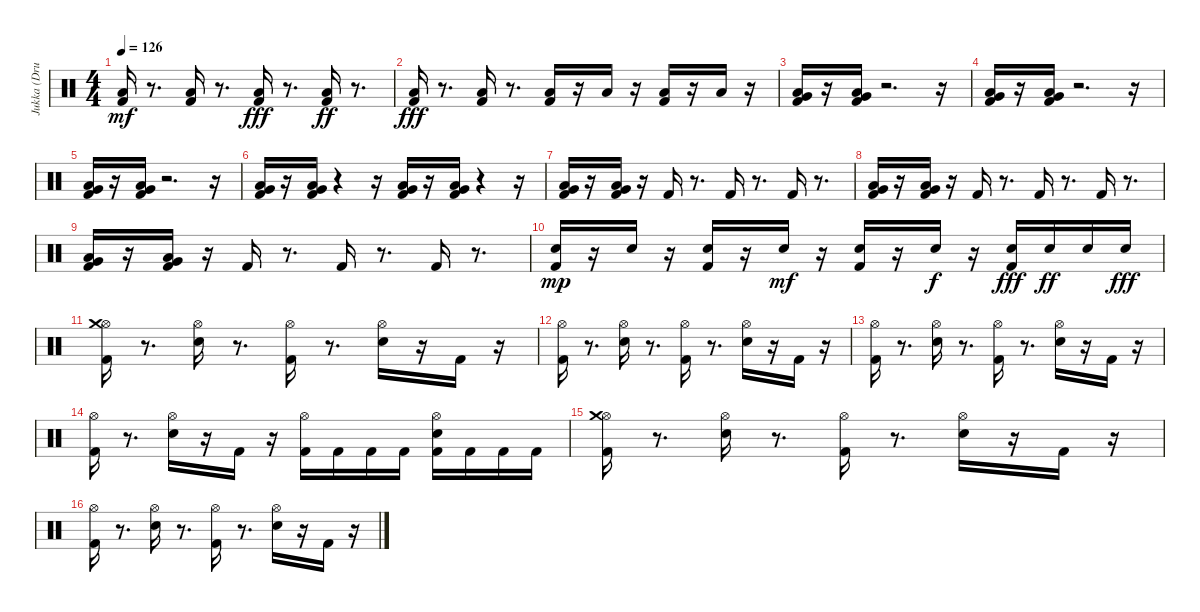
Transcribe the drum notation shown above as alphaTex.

\track ("Jukka (Drums)" "Jukka (Dru") {instrument percussion}
\staff {score}
\articulation defaults
\ts (4 4)
\tempo 126
\clef neutral
\ks c
("Kick (hit) 2" "Low Floor Tom (hit)").16{dy mf} r.8{d} ("Kick (hit) 2" "Low Floor Tom (hit)").16 r.8{d} ("Kick (hit) 2" "Low Floor Tom (hit)").16{dy fff} r.8{d} ("Kick (hit) 2" "Low Floor Tom (hit)").16{dy ff} r.8{d} |
("Kick (hit) 2" "Low Floor Tom (hit)").16{dy fff} r.8{d} ("Kick (hit) 2" "Low Floor Tom (hit)").16 r.8{d} ("Kick (hit) 2" "Low Floor Tom (hit)").16 r.16 "Low Floor Tom (hit)".16 r.16 ("Kick (hit) 2" "Low Floor Tom (hit)").16 r.16 "Low Floor Tom (hit)".16 r.16 |
("Kick (hit) 2" "Low Floor Tom (hit)" "Very Low Tom (hit)").16 r.16 ("Kick (hit) 2" "Low Floor Tom (hit)" "Very Low Tom (hit)").16 r.2{d} r.16 |
("Kick (hit) 2" "Low Floor Tom (hit)" "Very Low Tom (hit)").16 r.16 ("Kick (hit) 2" "Low Floor Tom (hit)" "Very Low Tom (hit)").16 r.2{d} r.16 |
("Kick (hit) 2" "Low Floor Tom (hit)" "Very Low Tom (hit)").16 r.16 ("Kick (hit) 2" "Low Floor Tom (hit)" "Very Low Tom (hit)").16 r.2{d} r.16 |
("Kick (hit) 2" "Low Floor Tom (hit)" "Very Low Tom (hit)").16 r.16 ("Kick (hit) 2" "Low Floor Tom (hit)" "Very Low Tom (hit)").16 r.4 r.16 ("Kick (hit) 2" "Low Floor Tom (hit)" "Very Low Tom (hit)").16 r.16 ("Kick (hit) 2" "Low Floor Tom (hit)" "Very Low Tom (hit)").16 r.4 r.16 |
("Kick (hit) 2" "Low Floor Tom (hit)" "Very Low Tom (hit)").16 r.16 ("Kick (hit) 2" "Low Floor Tom (hit)" "Very Low Tom (hit)").16 r.16 "Kick (hit) 2".16 r.8{d} "Kick (hit) 2".16 r.8{d} "Kick (hit) 2".16 r.8{d} |
("Kick (hit) 2" "Low Floor Tom (hit)" "Very Low Tom (hit)").16 r.16 ("Kick (hit) 2" "Low Floor Tom (hit)" "Very Low Tom (hit)").16 r.16 "Kick (hit) 2".16 r.8{d} "Kick (hit) 2".16 r.8{d} "Kick (hit) 2".16 r.8{d} |
("Kick (hit) 2" "Low Floor Tom (hit)" "Very Low Tom (hit)").16 r.16 ("Kick (hit) 2" "Low Floor Tom (hit)" "Very Low Tom (hit)").16 r.16 "Kick (hit) 2".16 r.8{d} "Kick (hit) 2".16 r.8{d} "Kick (hit) 2".16 r.8{d} |
("Kick (hit) 2" "Electric Snare (hit)").16{dy mp} r.16 "Electric Snare (hit)".16 r.16 ("Kick (hit) 2" "Electric Snare (hit)").16 r.16 "Electric Snare (hit)".16{dy mf} r.16 ("Kick (hit) 2" "Electric Snare (hit)").16 r.16 "Electric Snare (hit)".16{dy f} r.16 ("Kick (hit) 2" "Electric Snare (hit)").16{dy fff} "Electric Snare (hit)".16{dy ff} "Electric Snare (hit)".16 "Electric Snare (hit)".16{dy fff} |
("Kick (hit) 2" "Hi-Hat (open)" "Crash medium (hit)").16 r.8{d} ("Electric Snare (hit)" "Hi-Hat (open)").16 r.8{d} ("Kick (hit) 2" "Hi-Hat (open)").16 r.8{d} ("Electric Snare (hit)" "Hi-Hat (open)").16 r.16 "Kick (hit) 2".16 r.16 |
("Kick (hit) 2" "Hi-Hat (open)").16 r.8{d} ("Electric Snare (hit)" "Hi-Hat (open)").16 r.8{d} ("Kick (hit) 2" "Hi-Hat (open)").16 r.8{d} ("Electric Snare (hit)" "Hi-Hat (open)").16 r.16 "Kick (hit) 2".16 r.16 |
("Kick (hit) 2" "Hi-Hat (open)").16 r.8{d} ("Electric Snare (hit)" "Hi-Hat (open)").16 r.8{d} ("Kick (hit) 2" "Hi-Hat (open)").16 r.8{d} ("Electric Snare (hit)" "Hi-Hat (open)").16 r.16 "Kick (hit) 2".16 r.16 |
("Kick (hit) 2" "Hi-Hat (open)").16 r.8{d} ("Electric Snare (hit)" "Hi-Hat (open)").16 r.16 "Kick (hit) 2".16 r.16 ("Kick (hit) 2" "Hi-Hat (open)").16 "Kick (hit) 2".16 "Kick (hit) 2".16 "Kick (hit) 2".16 ("Electric Snare (hit)" "Kick (hit) 2" "Hi-Hat (open)").16 "Kick (hit) 2".16 "Kick (hit) 2".16 "Kick (hit) 2".16 |
("Kick (hit) 2" "Hi-Hat (open)" "Crash medium (hit)").16 r.8{d} ("Electric Snare (hit)" "Hi-Hat (open)").16 r.8{d} ("Kick (hit) 2" "Hi-Hat (open)").16 r.8{d} ("Electric Snare (hit)" "Hi-Hat (open)").16 r.16 "Kick (hit) 2".16 r.16 |
("Kick (hit) 2" "Hi-Hat (open)").16 r.8{d} ("Electric Snare (hit)" "Hi-Hat (open)").16 r.8{d} ("Kick (hit) 2" "Hi-Hat (open)").16 r.8{d} ("Electric Snare (hit)" "Hi-Hat (open)").16 r.16 "Kick (hit) 2".16 r.16
